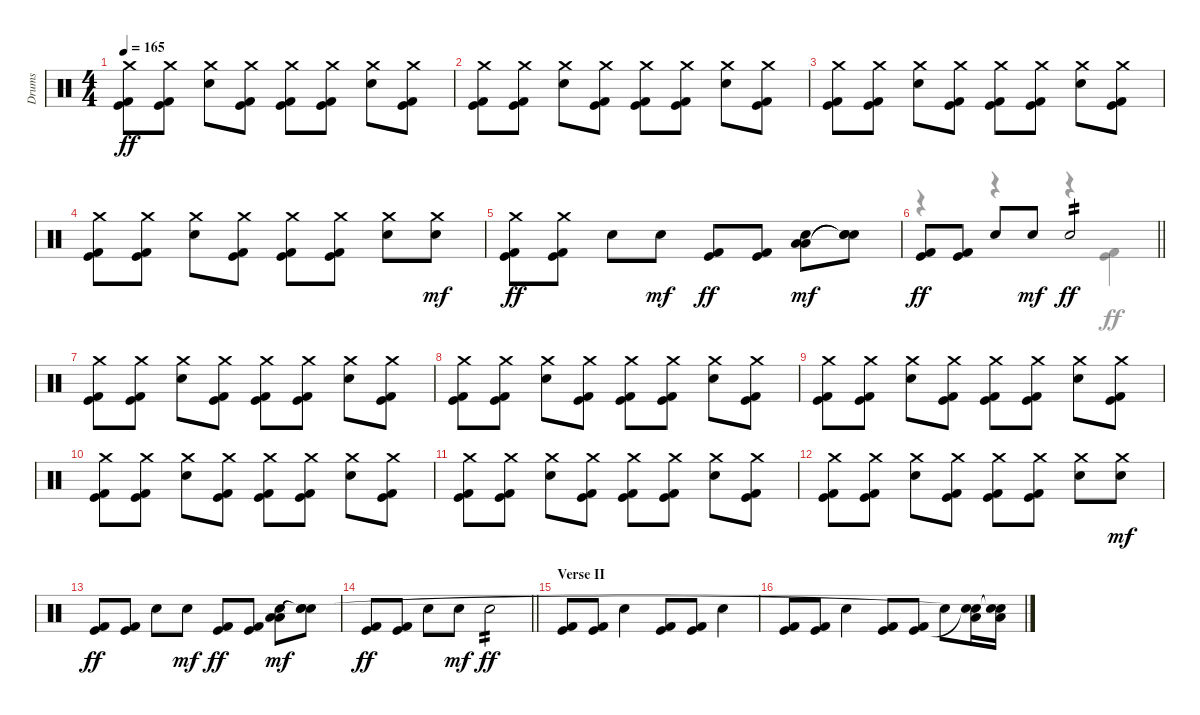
\track ("Drums" "Drums") {instrument percussion}
\staff
\articulation defaults
\voice
\ts (4 4)
\tempo 165
\clef neutral
\ks c
("Crash medium (hit)" "Kick (hit) 2" "Kick (hit)").8{dy ff} ("Crash medium (hit)" "Kick (hit) 2" "Kick (hit)").8 ("Crash medium (hit)" "Electric Snare (hit)").8 ("Crash medium (hit)" "Kick (hit) 2" "Kick (hit)").8 ("Crash medium (hit)" "Kick (hit) 2" "Kick (hit)").8 ("Crash medium (hit)" "Kick (hit) 2" "Kick (hit)").8 ("Crash medium (hit)" "Electric Snare (hit)").8 ("Crash medium (hit)" "Kick (hit) 2" "Kick (hit)").8 |
("Crash medium (hit)" "Kick (hit) 2" "Kick (hit)").8 ("Crash medium (hit)" "Kick (hit) 2" "Kick (hit)").8 ("Crash medium (hit)" "Electric Snare (hit)").8 ("Crash medium (hit)" "Kick (hit) 2" "Kick (hit)").8 ("Crash medium (hit)" "Kick (hit) 2" "Kick (hit)").8 ("Crash medium (hit)" "Kick (hit) 2" "Kick (hit)").8 ("Crash medium (hit)" "Electric Snare (hit)").8 ("Crash medium (hit)" "Kick (hit) 2" "Kick (hit)").8 |
("Crash medium (hit)" "Kick (hit) 2" "Kick (hit)").8 ("Crash medium (hit)" "Kick (hit) 2" "Kick (hit)").8 ("Crash medium (hit)" "Electric Snare (hit)").8 ("Crash medium (hit)" "Kick (hit) 2" "Kick (hit)").8 ("Crash medium (hit)" "Kick (hit) 2" "Kick (hit)").8 ("Crash medium (hit)" "Kick (hit) 2" "Kick (hit)").8 ("Crash medium (hit)" "Electric Snare (hit)").8 ("Crash medium (hit)" "Kick (hit) 2" "Kick (hit)").8 |
("Crash medium (hit)" "Kick (hit) 2" "Kick (hit)").8 ("Crash medium (hit)" "Kick (hit) 2" "Kick (hit)").8 ("Crash medium (hit)" "Electric Snare (hit)").8 ("Crash medium (hit)" "Kick (hit) 2" "Kick (hit)").8 ("Crash medium (hit)" "Kick (hit) 2" "Kick (hit)").8 ("Crash medium (hit)" "Kick (hit) 2" "Kick (hit)").8 ("Crash medium (hit)" "Electric Snare (hit)").8 ("Crash medium (hit)" "Electric Snare (hit)").8{dy mf} |
("Crash medium (hit)" "Kick (hit) 2" "Kick (hit)").8{dy ff} ("Crash medium (hit)" "Kick (hit) 2" "Kick (hit)").8 "Electric Snare (hit)".8 "Electric Snare (hit)".8{dy mf} ("Kick (hit) 2" "Kick (hit)").8{dy ff} ("Kick (hit) 2" "Kick (hit)").8 ("Electric Snare (hit)" "Low Tom (hit)" "Low Floor Tom (hit)").8{dy mf} ("Electric Snare (hit)" "Snare (hit)"{t} "Snare (hit)"{t}).8 |
\barLineRight lightlight
("Kick (hit) 2" "Kick (hit)").8{dy ff} ("Kick (hit) 2" "Kick (hit)").8 "Electric Snare (hit)".8 "Electric Snare (hit)".8{dy mf} "Electric Snare (hit)".2{tp 2 dy ff} |
("Crash medium (hit)" "Kick (hit) 2" "Kick (hit)").8 ("Crash medium (hit)" "Kick (hit) 2" "Kick (hit)").8 ("Crash medium (hit)" "Electric Snare (hit)").8 ("Crash medium (hit)" "Kick (hit) 2" "Kick (hit)").8 ("Crash medium (hit)" "Kick (hit) 2" "Kick (hit)").8 ("Crash medium (hit)" "Kick (hit) 2" "Kick (hit)").8 ("Crash medium (hit)" "Electric Snare (hit)").8 ("Crash medium (hit)" "Kick (hit) 2" "Kick (hit)").8 |
("Crash medium (hit)" "Kick (hit) 2" "Kick (hit)").8 ("Crash medium (hit)" "Kick (hit) 2" "Kick (hit)").8 ("Crash medium (hit)" "Electric Snare (hit)").8 ("Crash medium (hit)" "Kick (hit) 2" "Kick (hit)").8 ("Crash medium (hit)" "Kick (hit) 2" "Kick (hit)").8 ("Crash medium (hit)" "Kick (hit) 2" "Kick (hit)").8 ("Crash medium (hit)" "Electric Snare (hit)").8 ("Crash medium (hit)" "Kick (hit) 2" "Kick (hit)").8 |
("Crash medium (hit)" "Kick (hit) 2" "Kick (hit)").8 ("Crash medium (hit)" "Kick (hit) 2" "Kick (hit)").8 ("Crash medium (hit)" "Electric Snare (hit)").8 ("Crash medium (hit)" "Kick (hit) 2" "Kick (hit)").8 ("Crash medium (hit)" "Kick (hit) 2" "Kick (hit)").8 ("Crash medium (hit)" "Kick (hit) 2" "Kick (hit)").8 ("Crash medium (hit)" "Electric Snare (hit)").8 ("Crash medium (hit)" "Kick (hit) 2" "Kick (hit)").8 |
("Crash medium (hit)" "Kick (hit) 2" "Kick (hit)").8 ("Crash medium (hit)" "Kick (hit) 2" "Kick (hit)").8 ("Crash medium (hit)" "Electric Snare (hit)").8 ("Crash medium (hit)" "Kick (hit) 2" "Kick (hit)").8 ("Crash medium (hit)" "Kick (hit) 2" "Kick (hit)").8 ("Crash medium (hit)" "Kick (hit) 2" "Kick (hit)").8 ("Crash medium (hit)" "Electric Snare (hit)").8 ("Crash medium (hit)" "Kick (hit) 2" "Kick (hit)").8 |
("Crash medium (hit)" "Kick (hit) 2" "Kick (hit)").8 ("Crash medium (hit)" "Kick (hit) 2" "Kick (hit)").8 ("Crash medium (hit)" "Electric Snare (hit)").8 ("Crash medium (hit)" "Kick (hit) 2" "Kick (hit)").8 ("Crash medium (hit)" "Kick (hit) 2" "Kick (hit)").8 ("Crash medium (hit)" "Kick (hit) 2" "Kick (hit)").8 ("Crash medium (hit)" "Electric Snare (hit)").8 ("Crash medium (hit)" "Kick (hit) 2" "Kick (hit)").8 |
("Crash medium (hit)" "Kick (hit) 2" "Kick (hit)").8 ("Crash medium (hit)" "Kick (hit) 2" "Kick (hit)").8 ("Crash medium (hit)" "Electric Snare (hit)").8 ("Crash medium (hit)" "Kick (hit) 2" "Kick (hit)").8 ("Crash medium (hit)" "Kick (hit) 2" "Kick (hit)").8 ("Crash medium (hit)" "Kick (hit) 2" "Kick (hit)").8 ("Crash medium (hit)" "Electric Snare (hit)").8 ("Crash medium (hit)" "Electric Snare (hit)").8{dy mf} |
("Kick (hit) 2" "Kick (hit)").8{dy ff} ("Kick (hit) 2" "Kick (hit)").8 "Electric Snare (hit)".8 "Electric Snare (hit)".8{dy mf} ("Kick (hit) 2" "Kick (hit)").8{dy ff} ("Kick (hit) 2" "Kick (hit)").8 ("Electric Snare (hit)" "Low Tom (hit)" "Low Floor Tom (hit)").8{dy mf} ("Electric Snare (hit)" "Snare (hit)"{t} "Snare (hit)"{t}).8 |
\barLineRight lightlight
("Kick (hit) 2" "Kick (hit)").8{dy ff} ("Kick (hit) 2" "Kick (hit)").8 "Electric Snare (hit)".8 "Electric Snare (hit)".8{dy mf} "Electric Snare (hit)".2{tp 2 dy ff} |
\section ("" "Verse II")
("Kick (hit) 2" "Kick (hit)").8 ("Kick (hit) 2" "Kick (hit)").8 "Electric Snare (hit)".4 ("Kick (hit) 2" "Kick (hit)").8 ("Kick (hit) 2" "Kick (hit)").8 "Electric Snare (hit)".4 |
("Kick (hit) 2" "Kick (hit)").8 ("Kick (hit) 2" "Kick (hit)").8 "Electric Snare (hit)".4 ("Kick (hit) 2" "Kick (hit)").8 ("Kick (hit) 2" "Kick (hit)").8 "Electric Snare (hit)".8 ("Low Tom (hit)" "Snare (hit)"{t} "Snare (hit)"{t}).16 ("Low Floor Tom (hit)" "Snare (hit)"{t} "Snare (hit)"{t}).16
\voice
\clef neutral
\ottava regular
\simile none
\ks c
|
|
|
|
|
\barLineRight lightlight
r.4 r.4 r.4 ("Kick (hit)" "Kick (hit) 2").4 |
|
|
|
|
|
|
|
\barLineRight lightlight
|
|
